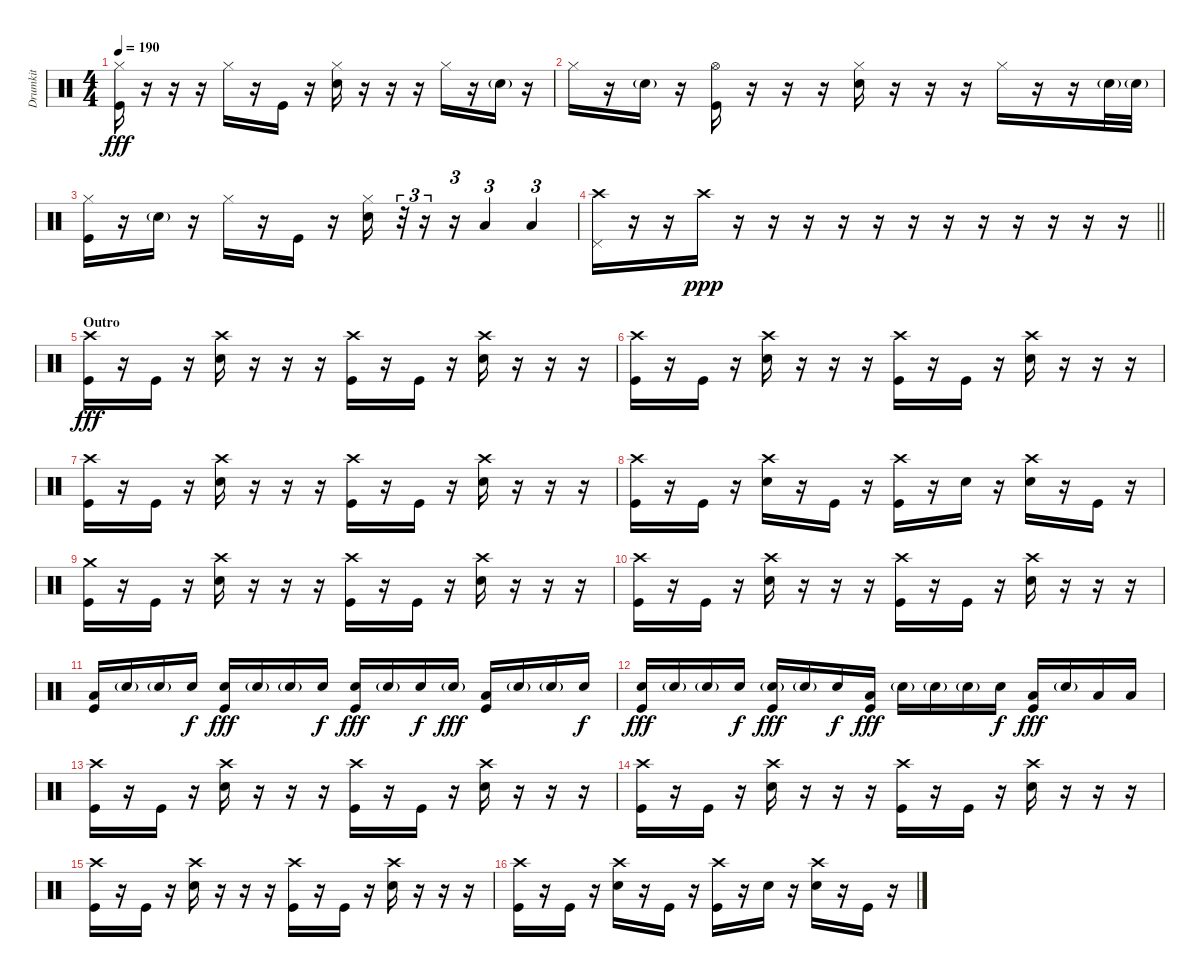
\track ("Drumkit" "Drumkit") {instrument percussion}
\staff {score}
\articulation defaults
\ts (4 4)
\tempo 190
\clef neutral
\ks c
("Hi-Hat (closed)" "Kick (hit)").16{dy fff} r.16 r.16 r.16 "Hi-Hat (closed)".16 r.16 "Kick (hit)".16 r.16 ("Hi-Hat (closed)" "Snare (hit) 2").16 r.16 r.16 r.16 "Hi-Hat (closed)".16 r.16 "Snare (hit) 2"{g}.16 r.16 |
"Hi-Hat (closed)".16 r.16 "Snare (hit) 2"{g}.16 r.16 ("Hi-Hat (open)" "Kick (hit)").16 r.16 r.16 r.16 ("Hi-Hat (closed)" "Snare (hit) 2").16 r.16 r.16 r.16 "Hi-Hat (closed)".16 r.16 r.16 "Snare (hit) 2"{g}.32 "Snare (hit) 2"{g}.32 |
("Hi-Hat (closed)" "Kick (hit)").16 r.16 "Snare (hit) 2"{g}.16 r.16 "Hi-Hat (closed)".16 r.16 "Kick (hit)".16 r.16 ("Hi-Hat (closed)" "Snare (hit) 2").16 r.32{tu (3 2)} r.16{tu (3 2)} r.16{tu (3 2)} "Low Tom (hit)".4{tu (3 2)} "Low Floor Tom (hit)".4{tu (3 2)} |
\barLineRight lightlight
("Crash high (hit)" "Pedal Hi-Hat (hit)").16 r.16 r.16 "Crash high (hit)".16{dy ppp} r.16 r.16 r.16 r.16 r.16 r.16 r.16 r.16 r.16 r.16 r.16 r.16 |
\section ("" "Outro")
("Crash high (hit)" "Kick (hit)").16{dy fff} r.16 "Kick (hit)".16 r.16 ("Crash high (hit)" "Snare (hit) 2").16 r.16 r.16 r.16 ("Crash high (hit)" "Kick (hit)").16 r.16 "Kick (hit)".16 r.16 ("Crash high (hit)" "Snare (hit) 2").16 r.16 r.16 r.16 |
("Crash high (hit)" "Kick (hit)").16 r.16 "Kick (hit)".16 r.16 ("Crash high (hit)" "Snare (hit) 2").16 r.16 r.16 r.16 ("Crash high (hit)" "Kick (hit)").16 r.16 "Kick (hit)".16 r.16 ("Crash high (hit)" "Snare (hit) 2").16 r.16 r.16 r.16 |
("Crash high (hit)" "Kick (hit)").16 r.16 "Kick (hit)".16 r.16 ("Crash high (hit)" "Snare (hit) 2").16 r.16 r.16 r.16 ("Crash high (hit)" "Kick (hit)").16 r.16 "Kick (hit)".16 r.16 ("Crash high (hit)" "Snare (hit) 2").16 r.16 r.16 r.16 |
("Crash high (hit)" "Kick (hit)").16 r.16 "Kick (hit)".16 r.16 ("Crash high (hit)" "Snare (hit) 2").16 r.16 "Kick (hit)".16 r.16 ("Crash high (hit)" "Kick (hit)").16 r.16 "Snare (hit) 2".16 r.16 ("Crash high (hit)" "Snare (hit) 2").16 r.16 "Kick (hit)".16 r.16 |
("Crash medium (hit)" "Kick (hit)").16 r.16 "Kick (hit)".16 r.16 ("Crash high (hit)" "Snare (hit) 2").16 r.16 r.16 r.16 ("Crash high (hit)" "Kick (hit)").16 r.16 "Kick (hit)".16 r.16 ("Crash high (hit)" "Snare (hit) 2").16 r.16 r.16 r.16 |
("Crash high (hit)" "Kick (hit)").16 r.16 "Kick (hit)".16 r.16 ("Crash high (hit)" "Snare (hit) 2").16 r.16 r.16 r.16 ("Crash high (hit)" "Kick (hit)").16 r.16 "Kick (hit)".16 r.16 ("Crash high (hit)" "Snare (hit) 2").16 r.16 r.16 r.16 |
("Low Tom (hit)" "Kick (hit)").16 "Snare (hit) 2"{g}.16 "Snare (hit) 2"{g}.16 "Snare (hit) 2".16{dy f} ("Snare (hit) 2" "Kick (hit)").16{dy fff} "Snare (hit) 2"{g}.16 "Snare (hit) 2"{g}.16 "Snare (hit) 2".16{dy f} ("Snare (hit) 2" "Kick (hit)").16{dy fff} "Snare (hit) 2"{g}.16 "Snare (hit) 2".16{dy f} "Snare (hit) 2"{g}.16{dy fff} ("Low Tom (hit)" "Kick (hit)").16 "Snare (hit) 2"{g}.16 "Snare (hit) 2"{g}.16 "Snare (hit) 2".16{dy f} |
("Snare (hit) 2" "Kick (hit)").16{dy fff} "Snare (hit) 2"{g}.16 "Snare (hit) 2"{g}.16 "Snare (hit) 2".16{dy f} ("Snare (hit) 2"{g} "Kick (hit)").16{dy fff} "Snare (hit) 2"{g}.16 "Snare (hit) 2".16{dy f} ("Low Tom (hit)" "Kick (hit)").16{dy fff} "Snare (hit) 2"{g}.16 "Snare (hit) 2"{g}.16 "Snare (hit) 2"{g}.16 "Snare (hit) 2".16{dy f} ("Low Tom (hit)" "Kick (hit)").16{dy fff} "Snare (hit) 2"{g}.16 "Low Tom (hit)".16 "Low Tom (hit)".16 |
("Crash high (hit)" "Kick (hit)").16 r.16 "Kick (hit)".16 r.16 ("Crash high (hit)" "Snare (hit) 2").16 r.16 r.16 r.16 ("Crash high (hit)" "Kick (hit)").16 r.16 "Kick (hit)".16 r.16 ("Crash high (hit)" "Snare (hit) 2").16 r.16 r.16 r.16 |
("Crash high (hit)" "Kick (hit)").16 r.16 "Kick (hit)".16 r.16 ("Crash high (hit)" "Snare (hit) 2").16 r.16 r.16 r.16 ("Crash high (hit)" "Kick (hit)").16 r.16 "Kick (hit)".16 r.16 ("Crash high (hit)" "Snare (hit) 2").16 r.16 r.16 r.16 |
("Crash high (hit)" "Kick (hit)").16 r.16 "Kick (hit)".16 r.16 ("Crash high (hit)" "Snare (hit) 2").16 r.16 r.16 r.16 ("Crash high (hit)" "Kick (hit)").16 r.16 "Kick (hit)".16 r.16 ("Crash high (hit)" "Snare (hit) 2").16 r.16 r.16 r.16 |
("Crash high (hit)" "Kick (hit)").16 r.16 "Kick (hit)".16 r.16 ("Crash high (hit)" "Snare (hit) 2").16 r.16 "Kick (hit)".16 r.16 ("Crash high (hit)" "Kick (hit)").16 r.16 "Snare (hit) 2".16 r.16 ("Crash high (hit)" "Snare (hit) 2").16 r.16 "Kick (hit)".16 r.16
